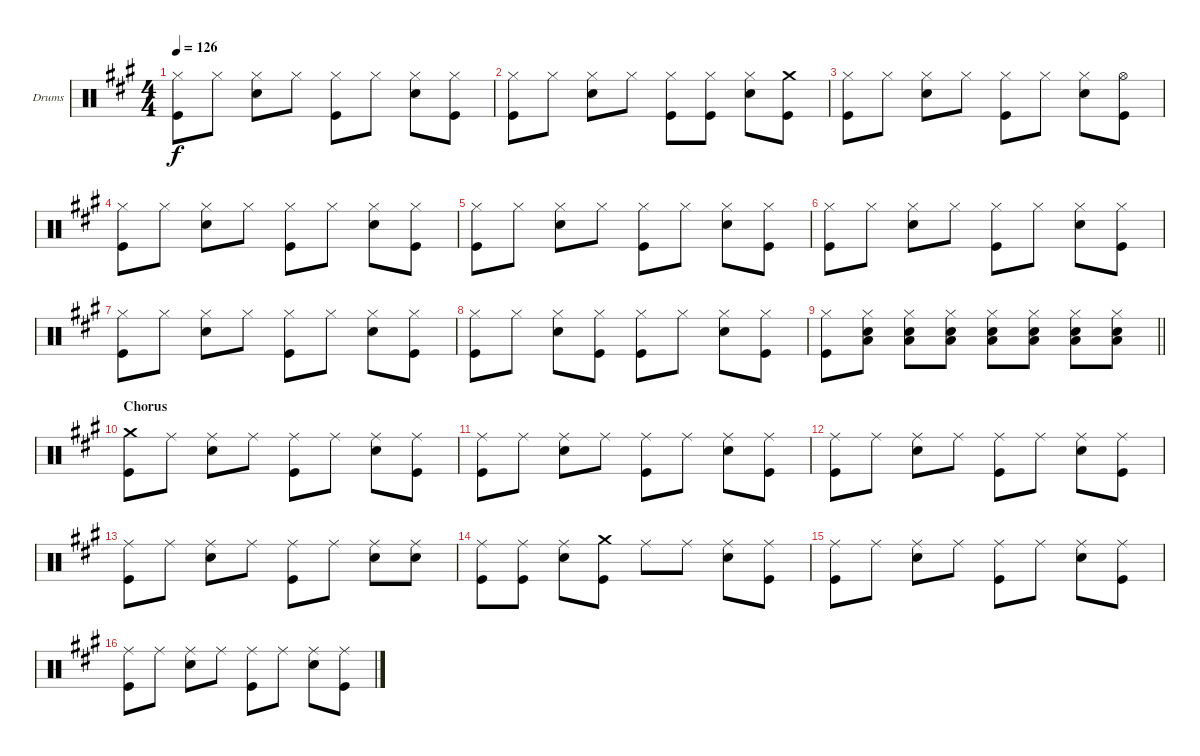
\bracketExtendMode groupsimilarinstruments
\firstSystemTrackNameOrientation horizontal
\otherSystemsTrackNameOrientation horizontal
\track ("Drumkit" "Drums") {instrument percussion}
\staff {score}
\articulation defaults
\ts (4 4)
\tempo 126
\clef neutral
\ks a
("Hi-Hat (closed)" "Kick (hit)").8{dy f} "Hi-Hat (closed)".8 ("Hi-Hat (closed)" "Snare (hit) 2").8 "Hi-Hat (closed)".8 ("Hi-Hat (closed)" "Kick (hit)").8 "Hi-Hat (closed)".8 ("Hi-Hat (closed)" "Snare (hit) 2").8 ("Hi-Hat (closed)" "Kick (hit)").8 |
("Hi-Hat (closed)" "Kick (hit)").8 "Hi-Hat (closed)".8 ("Hi-Hat (closed)" "Snare (hit) 2").8 "Hi-Hat (closed)".8 ("Hi-Hat (closed)" "Kick (hit)").8 ("Hi-Hat (closed)" "Kick (hit)").8 ("Hi-Hat (closed)" "Snare (hit) 2").8 ("Crash medium (hit)" "Kick (hit)").8 |
("Hi-Hat (closed)" "Kick (hit)").8 "Hi-Hat (closed)".8 ("Hi-Hat (closed)" "Snare (hit) 2").8 "Hi-Hat (closed)".8 ("Hi-Hat (closed)" "Kick (hit)").8 "Hi-Hat (closed)".8 ("Hi-Hat (closed)" "Snare (hit) 2").8 ("Hi-Hat (open)" "Kick (hit)").8 |
("Hi-Hat (closed)" "Kick (hit)").8 "Hi-Hat (closed)".8 ("Hi-Hat (closed)" "Snare (hit) 2").8 "Hi-Hat (closed)".8 ("Hi-Hat (closed)" "Kick (hit)").8 "Hi-Hat (closed)".8 ("Hi-Hat (closed)" "Snare (hit) 2").8 ("Hi-Hat (closed)" "Kick (hit)").8 |
("Hi-Hat (closed)" "Kick (hit)").8 "Hi-Hat (closed)".8 ("Hi-Hat (closed)" "Snare (hit) 2").8 "Hi-Hat (closed)".8 ("Hi-Hat (closed)" "Kick (hit)").8 "Hi-Hat (closed)".8 ("Hi-Hat (closed)" "Snare (hit) 2").8 ("Hi-Hat (closed)" "Kick (hit)").8 |
("Hi-Hat (closed)" "Kick (hit)").8 "Hi-Hat (closed)".8 ("Hi-Hat (closed)" "Snare (hit) 2").8 "Hi-Hat (closed)".8 ("Hi-Hat (closed)" "Kick (hit)").8 "Hi-Hat (closed)".8 ("Hi-Hat (closed)" "Snare (hit) 2").8 ("Hi-Hat (closed)" "Kick (hit)").8 |
("Hi-Hat (closed)" "Kick (hit)").8 "Hi-Hat (closed)".8 ("Hi-Hat (closed)" "Snare (hit) 2").8 "Hi-Hat (closed)".8 ("Hi-Hat (closed)" "Kick (hit)").8 "Hi-Hat (closed)".8 ("Hi-Hat (closed)" "Snare (hit) 2").8 ("Hi-Hat (closed)" "Kick (hit)").8 |
("Hi-Hat (closed)" "Kick (hit)").8 "Hi-Hat (closed)".8 ("Hi-Hat (closed)" "Snare (hit) 2").8 ("Hi-Hat (closed)" "Kick (hit)").8 ("Hi-Hat (closed)" "Kick (hit)").8 "Hi-Hat (closed)".8 ("Hi-Hat (closed)" "Snare (hit) 2").8 ("Hi-Hat (closed)" "Kick (hit)").8 |
\barLineRight lightlight
("Hi-Hat (closed)" "Kick (hit)").8 ("Hi-Hat (closed)" "Low Tom (hit)" "Snare (hit) 2").8 ("Hi-Hat (closed)" "Low Tom (hit)" "Snare (hit) 2").8 ("Hi-Hat (closed)" "Low Tom (hit)" "Snare (hit) 2").8 ("Hi-Hat (closed)" "Low Tom (hit)" "Snare (hit) 2").8 ("Hi-Hat (closed)" "Low Tom (hit)" "Snare (hit) 2").8 ("Hi-Hat (closed)" "Low Tom (hit)" "Snare (hit) 2").8 ("Hi-Hat (closed)" "Low Tom (hit)" "Snare (hit) 2").8 |
\section ("" "Chorus")
("Crash medium (hit)" "Kick (hit)").8 "Ride (middle)".8 ("Ride (middle)" "Snare (hit) 2").8 "Ride (middle)".8 ("Ride (middle)" "Kick (hit)").8 "Ride (middle)".8 ("Ride (middle)" "Snare (hit) 2").8 ("Ride (middle)" "Kick (hit)").8 |
("Ride (middle)" "Kick (hit)").8 "Ride (middle)".8 ("Ride (middle)" "Snare (hit) 2").8 "Ride (middle)".8 ("Ride (middle)" "Kick (hit)").8 "Ride (middle)".8 ("Ride (middle)" "Snare (hit) 2").8 ("Ride (middle)" "Kick (hit)").8 |
("Ride (middle)" "Kick (hit)").8 "Ride (middle)".8 ("Ride (middle)" "Snare (hit) 2").8 "Ride (middle)".8 ("Ride (middle)" "Kick (hit)").8 "Ride (middle)".8 ("Ride (middle)" "Snare (hit) 2").8 ("Ride (middle)" "Kick (hit)").8 |
("Ride (middle)" "Kick (hit)").8 "Ride (middle)".8 ("Ride (middle)" "Snare (hit) 2").8 "Ride (middle)".8 ("Ride (middle)" "Kick (hit)").8 "Ride (middle)".8 ("Ride (middle)" "Snare (hit) 2").8 ("Ride (middle)" "Snare (hit) 2").8 |
("Ride (middle)" "Kick (hit)").8 ("Ride (middle)" "Kick (hit)").8 ("Ride (middle)" "Snare (hit) 2").8 ("Crash medium (hit)" "Kick (hit)").8 "Ride (middle)".8 "Ride (middle)".8 ("Ride (middle)" "Snare (hit) 2").8 ("Ride (middle)" "Kick (hit)").8 |
("Ride (middle)" "Kick (hit)").8 "Ride (middle)".8 ("Ride (middle)" "Snare (hit) 2").8 "Ride (middle)".8 ("Ride (middle)" "Kick (hit)").8 "Ride (middle)".8 ("Ride (middle)" "Snare (hit) 2").8 ("Ride (middle)" "Kick (hit)").8 |
("Ride (middle)" "Kick (hit)").8 "Ride (middle)".8 ("Ride (middle)" "Snare (hit) 2").8 "Ride (middle)".8 ("Ride (middle)" "Kick (hit)").8 "Ride (middle)".8 ("Ride (middle)" "Snare (hit) 2").8 ("Ride (middle)" "Kick (hit)").8
